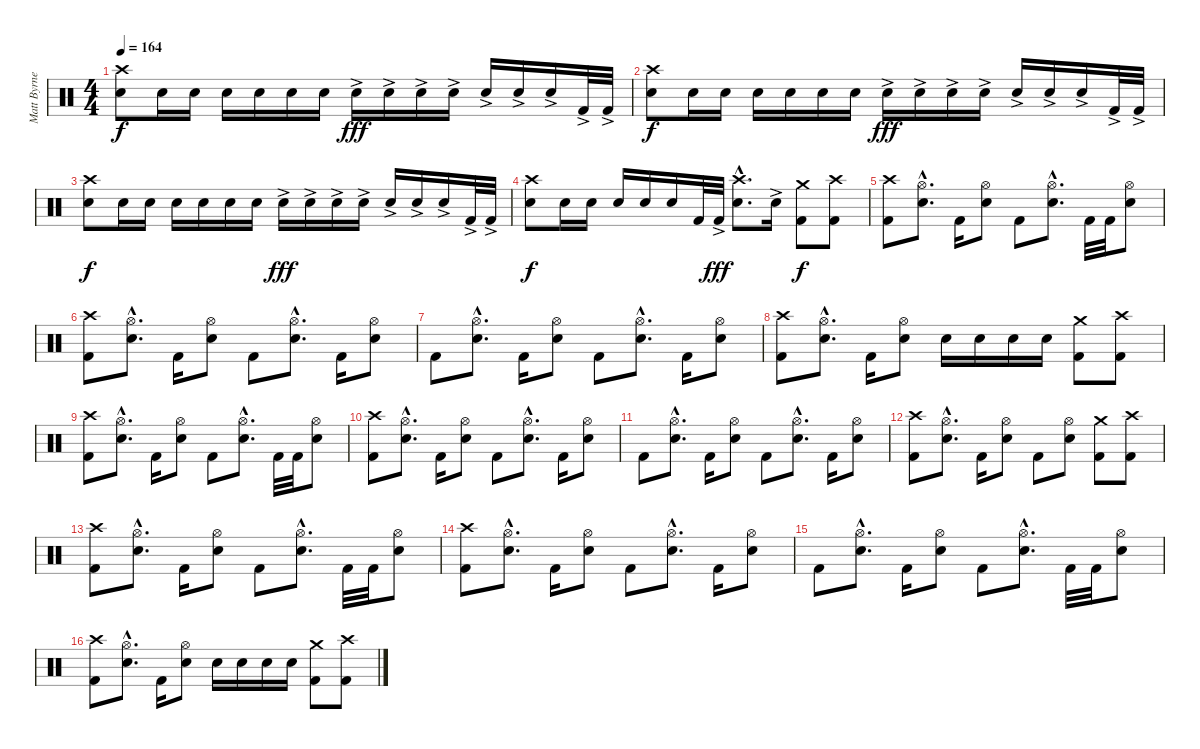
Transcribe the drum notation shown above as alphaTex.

\track ("Matt Byrne (Drums)" "Matt Byrne") {instrument percussion}
\staff {score}
\articulation defaults
\ts (4 4)
\tempo 164
\clef neutral
\ks c
("Crash high (hit)" "Snare (hit) 2").8{dy f} "Snare (hit) 2".16 "Snare (hit) 2".16 "Snare (hit) 2".16 "Snare (hit) 2".16 "Snare (hit) 2".16 "Snare (hit) 2".16 "Snare (hit) 2"{ac}.16{dy fff} "Snare (hit) 2"{ac}.16 "Snare (hit) 2"{ac}.16 "Snare (hit) 2"{ac}.16 "Snare (hit) 2"{ac}.16 "Snare (hit) 2"{ac}.16 "Snare (hit) 2"{ac}.16 "Kick (hit) 2"{ac}.32 "Kick (hit) 2"{ac}.32 |
("Crash high (hit)" "Snare (hit) 2").8{dy f} "Snare (hit) 2".16 "Snare (hit) 2".16 "Snare (hit) 2".16 "Snare (hit) 2".16 "Snare (hit) 2".16 "Snare (hit) 2".16 "Snare (hit) 2"{ac}.16{dy fff} "Snare (hit) 2"{ac}.16 "Snare (hit) 2"{ac}.16 "Snare (hit) 2"{ac}.16 "Snare (hit) 2"{ac}.16 "Snare (hit) 2"{ac}.16 "Snare (hit) 2"{ac}.16 "Kick (hit) 2"{ac}.32 "Kick (hit) 2"{ac}.32 |
("Crash high (hit)" "Snare (hit) 2").8{dy f} "Snare (hit) 2".16 "Snare (hit) 2".16 "Snare (hit) 2".16 "Snare (hit) 2".16 "Snare (hit) 2".16 "Snare (hit) 2".16 "Snare (hit) 2"{ac}.16{dy fff} "Snare (hit) 2"{ac}.16 "Snare (hit) 2"{ac}.16 "Snare (hit) 2"{ac}.16 "Snare (hit) 2"{ac}.16 "Snare (hit) 2"{ac}.16 "Snare (hit) 2"{ac}.16 "Kick (hit) 2"{ac}.32 "Kick (hit) 2"{ac}.32 |
("Crash high (hit)" "Snare (hit) 2").8{dy f} "Snare (hit) 2".16 "Snare (hit) 2".16 "Snare (hit) 2".16 "Snare (hit) 2".16 "Snare (hit) 2".16 "Kick (hit) 2".32 "Kick (hit) 2"{ac}.32{dy fff} ("Crash high (hit)"{hac} "Snare (hit) 2"{hac}).8{d} "Snare (hit) 2"{ac}.16 ("Crash medium (hit)" "Kick (hit) 2").8{dy f} ("Crash high (hit)" "Kick (hit) 2").8 |
("Crash high (hit)" "Kick (hit) 2").8 ("Hi-Hat (open)"{hac} "Snare (hit) 2"{hac}).8{d} "Kick (hit) 2".16 ("Hi-Hat (open)" "Snare (hit) 2").8 "Kick (hit) 2".8 ("Hi-Hat (open)"{hac} "Snare (hit) 2"{hac}).8{d} "Kick (hit) 2".32 "Kick (hit) 2".32 ("Hi-Hat (open)" "Snare (hit) 2").8 |
("Crash high (hit)" "Kick (hit) 2").8 ("Hi-Hat (open)"{hac} "Snare (hit) 2"{hac}).8{d} "Kick (hit) 2".16 ("Hi-Hat (open)" "Snare (hit) 2").8 "Kick (hit) 2".8 ("Hi-Hat (open)"{hac} "Snare (hit) 2"{hac}).8{d} "Kick (hit) 2".16 ("Hi-Hat (open)" "Snare (hit) 2").8 |
"Kick (hit) 2".8 ("Hi-Hat (open)"{hac} "Snare (hit) 2"{hac}).8{d} "Kick (hit) 2".16 ("Hi-Hat (open)" "Snare (hit) 2").8 "Kick (hit) 2".8 ("Hi-Hat (open)"{hac} "Snare (hit) 2"{hac}).8{d} "Kick (hit) 2".16 ("Hi-Hat (open)" "Snare (hit) 2").8 |
("Crash high (hit)" "Kick (hit) 2").8 ("Hi-Hat (open)"{hac} "Snare (hit) 2"{hac}).8{d} "Kick (hit) 2".16 ("Hi-Hat (open)" "Snare (hit) 2").8 "Snare (hit) 2".16 "Snare (hit) 2".16 "Snare (hit) 2".16 "Snare (hit) 2".16 ("Crash medium (hit)" "Kick (hit) 2").8 ("Crash high (hit)" "Kick (hit) 2").8 |
("Crash high (hit)" "Kick (hit) 2").8 ("Hi-Hat (open)"{hac} "Snare (hit) 2"{hac}).8{d} "Kick (hit) 2".16 ("Hi-Hat (open)" "Snare (hit) 2").8 "Kick (hit) 2".8 ("Hi-Hat (open)"{hac} "Snare (hit) 2"{hac}).8{d} "Kick (hit) 2".32 "Kick (hit) 2".32 ("Hi-Hat (open)" "Snare (hit) 2").8 |
("Crash high (hit)" "Kick (hit) 2").8 ("Hi-Hat (open)"{hac} "Snare (hit) 2"{hac}).8{d} "Kick (hit) 2".16 ("Hi-Hat (open)" "Snare (hit) 2").8 "Kick (hit) 2".8 ("Hi-Hat (open)"{hac} "Snare (hit) 2"{hac}).8{d} "Kick (hit) 2".16 ("Hi-Hat (open)" "Snare (hit) 2").8 |
"Kick (hit) 2".8 ("Hi-Hat (open)"{hac} "Snare (hit) 2"{hac}).8{d} "Kick (hit) 2".16 ("Hi-Hat (open)" "Snare (hit) 2").8 "Kick (hit) 2".8 ("Hi-Hat (open)"{hac} "Snare (hit) 2"{hac}).8{d} "Kick (hit) 2".16 ("Hi-Hat (open)" "Snare (hit) 2").8 |
("Crash high (hit)" "Kick (hit) 2").8 ("Hi-Hat (open)"{hac} "Snare (hit) 2"{hac}).8{d} "Kick (hit) 2".16 ("Hi-Hat (open)" "Snare (hit) 2").8 "Kick (hit) 2".8 ("Hi-Hat (open)" "Snare (hit) 2").8 ("Crash medium (hit)" "Kick (hit) 2").8 ("Crash high (hit)" "Kick (hit) 2").8 |
("Crash high (hit)" "Kick (hit) 2").8 ("Hi-Hat (open)"{hac} "Snare (hit) 2"{hac}).8{d} "Kick (hit) 2".16 ("Hi-Hat (open)" "Snare (hit) 2").8 "Kick (hit) 2".8 ("Hi-Hat (open)"{hac} "Snare (hit) 2"{hac}).8{d} "Kick (hit) 2".32 "Kick (hit) 2".32 ("Hi-Hat (open)" "Snare (hit) 2").8 |
("Crash high (hit)" "Kick (hit) 2").8 ("Hi-Hat (open)"{hac} "Snare (hit) 2"{hac}).8{d} "Kick (hit) 2".16 ("Hi-Hat (open)" "Snare (hit) 2").8 "Kick (hit) 2".8 ("Hi-Hat (open)"{hac} "Snare (hit) 2"{hac}).8{d} "Kick (hit) 2".16 ("Hi-Hat (open)" "Snare (hit) 2").8 |
"Kick (hit) 2".8 ("Hi-Hat (open)"{hac} "Snare (hit) 2"{hac}).8{d} "Kick (hit) 2".16 ("Hi-Hat (open)" "Snare (hit) 2").8 "Kick (hit) 2".8 ("Hi-Hat (open)"{hac} "Snare (hit) 2"{hac}).8{d} "Kick (hit) 2".32 "Kick (hit) 2".32 ("Hi-Hat (open)" "Snare (hit) 2").8 |
("Crash high (hit)" "Kick (hit) 2").8 ("Hi-Hat (open)"{hac} "Snare (hit) 2"{hac}).8{d} "Kick (hit) 2".16 ("Hi-Hat (open)" "Snare (hit) 2").8 "Snare (hit) 2".16 "Snare (hit) 2".16 "Snare (hit) 2".16 "Snare (hit) 2".16 ("Crash medium (hit)" "Kick (hit) 2").8 ("Crash high (hit)" "Kick (hit) 2").8
